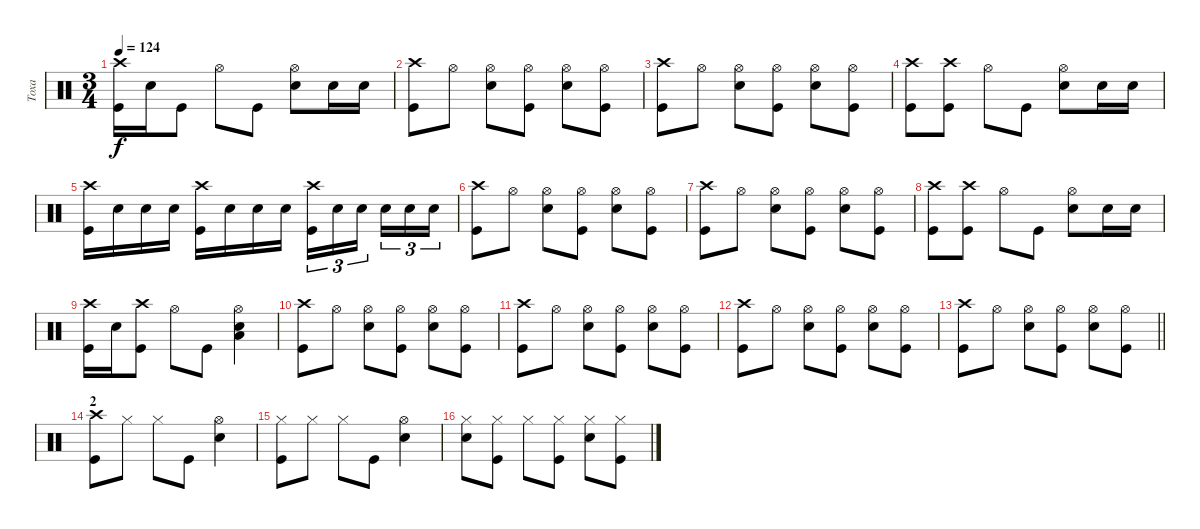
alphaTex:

\track ("Тоха" "Тоха") {instrument percussion}
\staff {score}
\articulation defaults
\ts (3 4)
\tempo 124
\clef neutral
\ks c
("Kick (hit)" "Crash high (hit)").16{dy f} "Snare (hit) 2".16 "Kick (hit)".8 "Hi-Hat (open)".8 "Kick (hit)".8 ("Snare (hit) 2" "Hi-Hat (open)").8 "Snare (hit) 2".16 "Snare (hit) 2".16 |
("Kick (hit)" "Crash high (hit)").8 "Hi-Hat (open)".8 ("Snare (hit) 2" "Hi-Hat (open)").8 ("Kick (hit)" "Hi-Hat (open)").8 ("Snare (hit) 2" "Hi-Hat (open)").8 ("Kick (hit)" "Hi-Hat (open)").8 |
("Kick (hit)" "Crash high (hit)").8 "Hi-Hat (open)".8 ("Snare (hit) 2" "Hi-Hat (open)").8 ("Kick (hit)" "Hi-Hat (open)").8 ("Snare (hit) 2" "Hi-Hat (open)").8 ("Kick (hit)" "Hi-Hat (open)").8 |
("Kick (hit)" "Crash high (hit)").8 ("Kick (hit)" "Crash high (hit)").8 "Hi-Hat (open)".8 "Kick (hit)".8 ("Snare (hit) 2" "Hi-Hat (open)").8 "Snare (hit) 2".16 "Snare (hit) 2".16 |
("Kick (hit)" "Crash high (hit)").16 "Snare (hit) 2".16 "Snare (hit) 2".16 "Snare (hit) 2".16 ("Kick (hit)" "Crash high (hit)").16 "Snare (hit) 2".16 "Snare (hit) 2".16 "Snare (hit) 2".16 ("Kick (hit)" "Crash high (hit)").16{tu (3 2)} "Snare (hit) 2".16{tu (3 2)} "Snare (hit) 2".16{tu (3 2) beam splitsecondary} "Snare (hit) 2".16{tu (3 2)} "Snare (hit) 2".16{tu (3 2)} "Snare (hit) 2".16{tu (3 2)} |
("Kick (hit)" "Crash high (hit)").8 "Hi-Hat (open)".8 ("Snare (hit) 2" "Hi-Hat (open)").8 ("Kick (hit)" "Hi-Hat (open)").8 ("Snare (hit) 2" "Hi-Hat (open)").8 ("Kick (hit)" "Hi-Hat (open)").8 |
("Kick (hit)" "Crash high (hit)").8 "Hi-Hat (open)".8 ("Snare (hit) 2" "Hi-Hat (open)").8 ("Kick (hit)" "Hi-Hat (open)").8 ("Snare (hit) 2" "Hi-Hat (open)").8 ("Kick (hit)" "Hi-Hat (open)").8 |
("Kick (hit)" "Crash high (hit)").8 ("Kick (hit)" "Crash high (hit)").8 "Hi-Hat (open)".8 "Kick (hit)".8 ("Snare (hit) 2" "Hi-Hat (open)").8 "Snare (hit) 2".16 "Snare (hit) 2".16 |
("Kick (hit)" "Crash high (hit)").16 "Snare (hit) 2".16 ("Kick (hit)" "Crash high (hit)").8 "Hi-Hat (open)".8 "Kick (hit)".8 ("Snare (hit) 2" "Low Floor Tom (hit)" "Hi-Hat (open)").4 |
("Kick (hit)" "Crash high (hit)").8 "Hi-Hat (open)".8 ("Snare (hit) 2" "Hi-Hat (open)").8 ("Kick (hit)" "Hi-Hat (open)").8 ("Snare (hit) 2" "Hi-Hat (open)").8 ("Kick (hit)" "Hi-Hat (open)").8 |
("Kick (hit)" "Crash high (hit)").8 "Hi-Hat (open)".8 ("Snare (hit) 2" "Hi-Hat (open)").8 ("Kick (hit)" "Hi-Hat (open)").8 ("Snare (hit) 2" "Hi-Hat (open)").8 ("Kick (hit)" "Hi-Hat (open)").8 |
("Kick (hit)" "Crash high (hit)").8 "Hi-Hat (open)".8 ("Snare (hit) 2" "Hi-Hat (open)").8 ("Kick (hit)" "Hi-Hat (open)").8 ("Snare (hit) 2" "Hi-Hat (open)").8 ("Kick (hit)" "Hi-Hat (open)").8 |
\barLineRight lightlight
("Kick (hit)" "Crash high (hit)").8 "Hi-Hat (open)".8 ("Snare (hit) 2" "Hi-Hat (open)").8 ("Kick (hit)" "Hi-Hat (open)").8 ("Snare (hit) 2" "Hi-Hat (open)").8 ("Kick (hit)" "Hi-Hat (open)").8 |
\section ("" "2")
("Kick (hit)" "Crash high (hit)").8 "Hi-Hat (closed)".8 "Hi-Hat (closed)".8 "Kick (hit)".8 ("Snare (hit) 2" "Hi-Hat (open)").4 |
("Kick (hit)" "Hi-Hat (closed)").8 "Hi-Hat (closed)".8 "Hi-Hat (closed)".8 "Kick (hit)".8 ("Snare (hit) 2" "Hi-Hat (open)").4 |
("Snare (hit) 2" "Hi-Hat (closed)").8 ("Kick (hit)" "Hi-Hat (closed)").8 "Hi-Hat (closed)".8 ("Kick (hit)" "Hi-Hat (closed)").8 ("Snare (hit) 2" "Hi-Hat (closed)").8 ("Kick (hit)" "Hi-Hat (closed)").8
